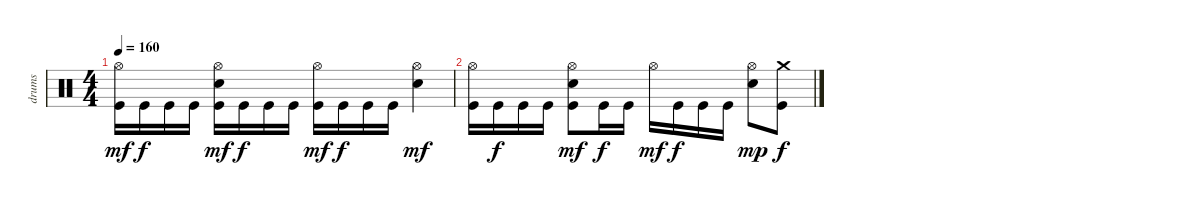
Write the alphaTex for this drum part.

\track ("drums" "drums") {instrument percussion}
\staff {score}
\articulation defaults
\ts (4 4)
\tempo 160
\clef neutral
\ks c
("Hi-Hat (open)" "Kick (hit)").16{dy mf} "Kick (hit)".16{dy f} "Kick (hit)".16 "Kick (hit)".16 ("Hi-Hat (open)" "Electric Snare (hit)" "Kick (hit)").16{dy mf} "Kick (hit)".16{dy f} "Kick (hit)".16 "Kick (hit)".16 ("Hi-Hat (open)" "Kick (hit)").16{dy mf} "Kick (hit)".16{dy f} "Kick (hit)".16 "Kick (hit)".16 ("Hi-Hat (open)" "Electric Snare (hit)").4{dy mf} |
("Hi-Hat (open)" "Kick (hit)").16 "Kick (hit)".16{dy f} "Kick (hit)".16 "Kick (hit)".16 ("Hi-Hat (open)" "Electric Snare (hit)" "Kick (hit)").8{dy mf} "Kick (hit)".16{dy f} "Kick (hit)".16 "Hi-Hat (open)".16{dy mf} "Kick (hit)".16{dy f} "Kick (hit)".16 "Kick (hit)".16 ("Hi-Hat (open)" "Electric Snare (hit)").8{dy mp} ("Crash medium (hit)" "Kick (hit)").8{dy f}
